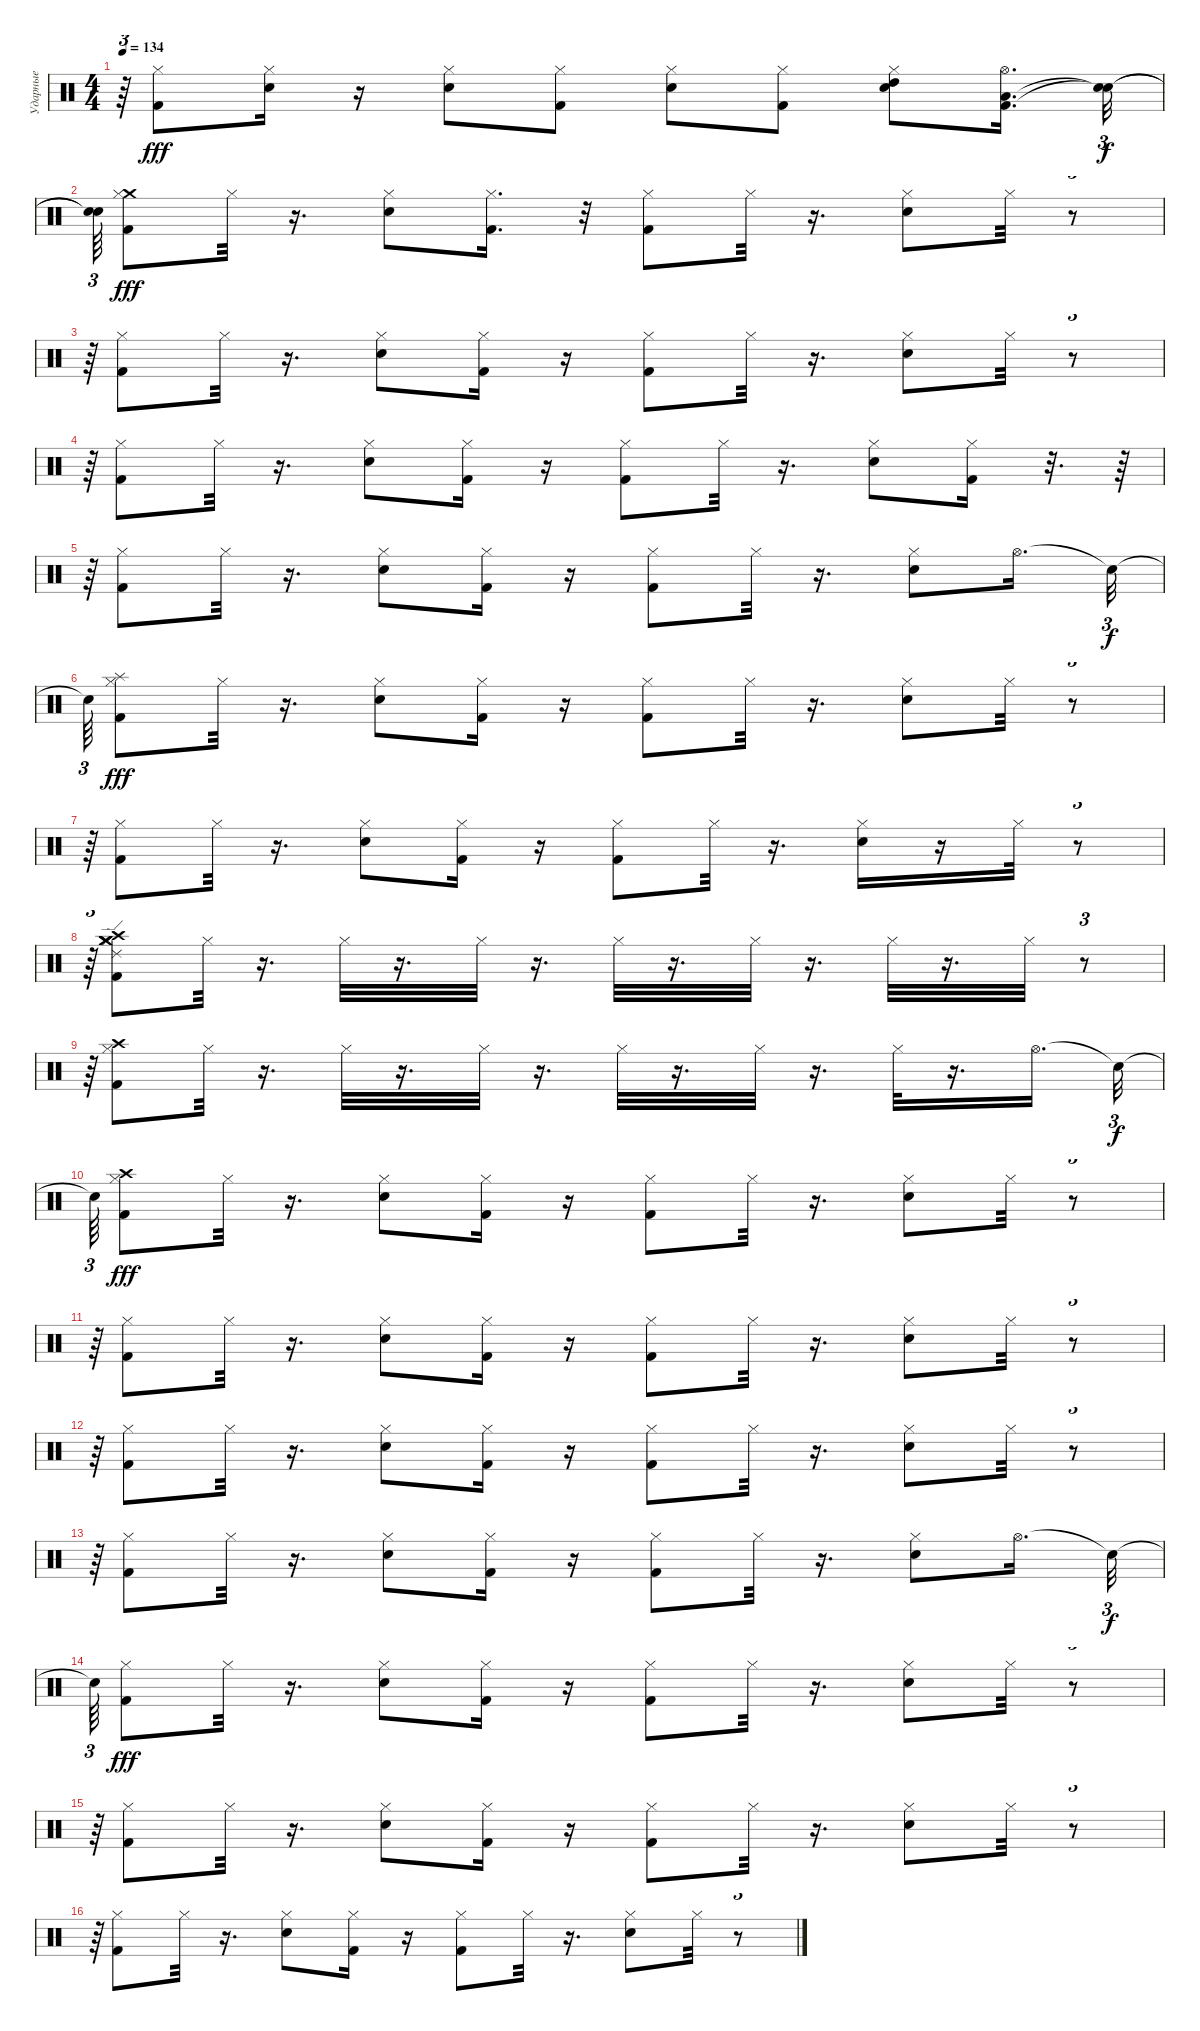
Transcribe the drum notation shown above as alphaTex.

\track ("Ударные" "Ударные") {instrument percussion}
\staff {score}
\articulation defaults
\ts (4 4)
\tempo 134
\clef neutral
\ks c
r.64{tu (3 2) dy fff} ("Kick (hit) 2" "Hi-Hat (closed)").8 ("Electric Snare (hit)" "Hi-Hat (closed)").16 r.16 ("Electric Snare (hit)" "Hi-Hat (closed)").8 ("Kick (hit) 2" "Hi-Hat (closed)").8 ("Electric Snare (hit)" "Hi-Hat (closed)").8 ("Kick (hit) 2" "Hi-Hat (closed)").8 ("Electric Snare (hit)" "High Tom (hit)" "Hi-Hat (closed)").8 ("Kick (hit) 2" "Low Tom (hit)" "Hi-Hat (open)").16{d} ("Snare (hit)"{t} "Snare (hit)"{t}).32{tu (3 2) dy f} |
("Snare (hit)"{t} "Snare (hit)"{t}).64{tu (3 2)} ("Kick (hit) 2" "Crash medium (hit)" "Hi-Hat (closed)").8{dy fff} "Hi-Hat (closed)".32 r.16{d} ("Electric Snare (hit)" "Hi-Hat (closed)").8 ("Kick (hit) 2" "Hi-Hat (closed)").16{d} r.32 ("Kick (hit) 2" "Hi-Hat (closed)").8 "Hi-Hat (closed)".32 r.16{d} ("Electric Snare (hit)" "Hi-Hat (closed)").8 "Hi-Hat (closed)".32 r.8{tu (3 2)} |
r.64{tu (3 2)} ("Kick (hit) 2" "Hi-Hat (closed)").8 "Hi-Hat (closed)".32 r.16{d} ("Electric Snare (hit)" "Hi-Hat (closed)").8 ("Kick (hit) 2" "Hi-Hat (closed)").16 r.16 ("Kick (hit) 2" "Hi-Hat (closed)").8 "Hi-Hat (closed)".32 r.16{d} ("Electric Snare (hit)" "Hi-Hat (closed)").8 "Hi-Hat (closed)".32 r.8{tu (3 2)} |
r.64{tu (3 2)} ("Kick (hit) 2" "Hi-Hat (closed)").8 "Hi-Hat (closed)".32 r.16{d} ("Electric Snare (hit)" "Hi-Hat (closed)").8 ("Kick (hit) 2" "Hi-Hat (closed)").16 r.16 ("Kick (hit) 2" "Hi-Hat (closed)").8 "Hi-Hat (closed)".32 r.16{d} ("Electric Snare (hit)" "Hi-Hat (closed)").8 ("Kick (hit) 2" "Hi-Hat (closed)").16 r.32{d} r.64 |
r.64{tu (3 2)} ("Kick (hit) 2" "Hi-Hat (closed)").8 "Hi-Hat (closed)".32 r.16{d} ("Electric Snare (hit)" "Hi-Hat (closed)").8 ("Kick (hit) 2" "Hi-Hat (closed)").16 r.16 ("Kick (hit) 2" "Hi-Hat (closed)").8 "Hi-Hat (closed)".32 r.16{d} ("Electric Snare (hit)" "Hi-Hat (closed)").8 "Hi-Hat (open)".16{d} "Snare (hit)"{t}.32{tu (3 2) dy f} |
"Snare (hit)"{t}.64{tu (3 2)} ("Kick (hit) 2" "Hi-Hat (closed)" "Splash (hit)").8{dy fff} "Hi-Hat (closed)".32 r.16{d} ("Electric Snare (hit)" "Hi-Hat (closed)").8 ("Kick (hit) 2" "Hi-Hat (closed)").16 r.16 ("Kick (hit) 2" "Hi-Hat (closed)").8 "Hi-Hat (closed)".32 r.16{d} ("Electric Snare (hit)" "Hi-Hat (closed)").8 "Hi-Hat (closed)".32 r.8{tu (3 2)} |
r.64{tu (3 2)} ("Kick (hit) 2" "Hi-Hat (closed)").8 "Hi-Hat (closed)".32 r.16{d} ("Electric Snare (hit)" "Hi-Hat (closed)").8 ("Kick (hit) 2" "Hi-Hat (closed)").16 r.16 ("Kick (hit) 2" "Hi-Hat (closed)").8 "Hi-Hat (closed)".32 r.16{d} ("Electric Snare (hit)" "Hi-Hat (closed)").16 r.16 "Hi-Hat (closed)".32 r.8{tu (3 2)} |
r.64{tu (3 2)} ("Kick (hit) 2" "Ride (edge) 2" "Crash medium (hit)" "Hi-Hat (closed)" "Crash high (hit)" "Crash medium (hit)").8 "Hi-Hat (closed)".32 r.16{d} "Hi-Hat (closed)".32 r.16{d} "Hi-Hat (closed)".32 r.16{d} "Hi-Hat (closed)".32 r.16{d} "Hi-Hat (closed)".32 r.16{d} "Hi-Hat (closed)".32 r.16{d} "Hi-Hat (closed)".32 r.8{tu (3 2)} |
r.64{tu (3 2)} ("Kick (hit) 2" "Crash high (hit)" "Hi-Hat (closed)").8 "Hi-Hat (closed)".32 r.16{d} "Hi-Hat (closed)".32 r.16{d} "Hi-Hat (closed)".32 r.16{d} "Hi-Hat (closed)".32 r.16{d} "Hi-Hat (closed)".32 r.16{d} "Hi-Hat (closed)".32 r.16{d} "Hi-Hat (open)".16{d} "Snare (hit)"{t}.32{tu (3 2) dy f} |
"Snare (hit)"{t}.64{tu (3 2)} ("Kick (hit) 2" "Crash high (hit)" "Hi-Hat (closed)").8{dy fff} "Hi-Hat (closed)".32 r.16{d} ("Electric Snare (hit)" "Hi-Hat (closed)").8 ("Kick (hit) 2" "Hi-Hat (closed)").16 r.16 ("Kick (hit) 2" "Hi-Hat (closed)").8 "Hi-Hat (closed)".32 r.16{d} ("Electric Snare (hit)" "Hi-Hat (closed)").8 "Hi-Hat (closed)".32 r.8{tu (3 2)} |
r.64{tu (3 2)} ("Kick (hit) 2" "Hi-Hat (closed)").8 "Hi-Hat (closed)".32 r.16{d} ("Electric Snare (hit)" "Hi-Hat (closed)").8 ("Kick (hit) 2" "Hi-Hat (closed)").16 r.16 ("Kick (hit) 2" "Hi-Hat (closed)").8 "Hi-Hat (closed)".32 r.16{d} ("Electric Snare (hit)" "Hi-Hat (closed)").8 "Hi-Hat (closed)".32 r.8{tu (3 2)} |
r.64{tu (3 2)} ("Kick (hit) 2" "Hi-Hat (closed)").8 "Hi-Hat (closed)".32 r.16{d} ("Electric Snare (hit)" "Hi-Hat (closed)").8 ("Kick (hit) 2" "Hi-Hat (closed)").16 r.16 ("Kick (hit) 2" "Hi-Hat (closed)").8 "Hi-Hat (closed)".32 r.16{d} ("Electric Snare (hit)" "Hi-Hat (closed)").8 "Hi-Hat (closed)".32 r.8{tu (3 2)} |
r.64{tu (3 2)} ("Kick (hit) 2" "Hi-Hat (closed)").8 "Hi-Hat (closed)".32 r.16{d} ("Electric Snare (hit)" "Hi-Hat (closed)").8 ("Kick (hit) 2" "Hi-Hat (closed)").16 r.16 ("Kick (hit) 2" "Hi-Hat (closed)").8 "Hi-Hat (closed)".32 r.16{d} ("Electric Snare (hit)" "Hi-Hat (closed)").8 "Hi-Hat (open)".16{d} "Snare (hit)"{t}.32{tu (3 2) dy f} |
"Snare (hit)"{t}.64{tu (3 2)} ("Kick (hit) 2" "Hi-Hat (closed)").8{dy fff} "Hi-Hat (closed)".32 r.16{d} ("Electric Snare (hit)" "Hi-Hat (closed)").8 ("Kick (hit) 2" "Hi-Hat (closed)").16 r.16 ("Kick (hit) 2" "Hi-Hat (closed)").8 "Hi-Hat (closed)".32 r.16{d} ("Electric Snare (hit)" "Hi-Hat (closed)").8 "Hi-Hat (closed)".32 r.8{tu (3 2)} |
r.64{tu (3 2)} ("Kick (hit) 2" "Hi-Hat (closed)").8 "Hi-Hat (closed)".32 r.16{d} ("Electric Snare (hit)" "Hi-Hat (closed)").8 ("Kick (hit) 2" "Hi-Hat (closed)").16 r.16 ("Kick (hit) 2" "Hi-Hat (closed)").8 "Hi-Hat (closed)".32 r.16{d} ("Electric Snare (hit)" "Hi-Hat (closed)").8 "Hi-Hat (closed)".32 r.8{tu (3 2)} |
r.64{tu (3 2)} ("Kick (hit) 2" "Hi-Hat (closed)").8 "Hi-Hat (closed)".32 r.16{d} ("Electric Snare (hit)" "Hi-Hat (closed)").8 ("Kick (hit) 2" "Hi-Hat (closed)").16 r.16 ("Kick (hit) 2" "Hi-Hat (closed)").8 "Hi-Hat (closed)".32 r.16{d} ("Electric Snare (hit)" "Hi-Hat (closed)").8 "Hi-Hat (closed)".32 r.8{tu (3 2)}
